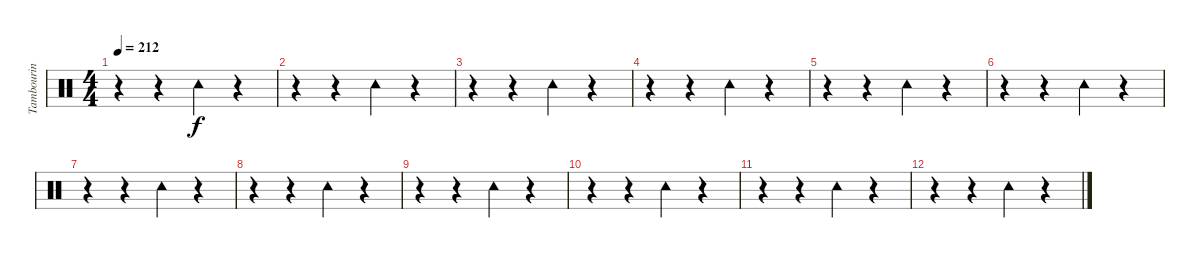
\track ("Tambourin" "Tambourin") {instrument percussion}
\staff {score}
\articulation defaults
\ts (4 4)
\tempo 212
\clef neutral
\ks c
r.4{dy f} r.4 "Tambourine (hit)".4 r.4 |
r.4 r.4 "Tambourine (hit)".4 r.4 |
r.4 r.4 "Tambourine (hit)".4 r.4 |
r.4 r.4 "Tambourine (hit)".4 r.4 |
r.4 r.4 "Tambourine (hit)".4 r.4 |
r.4 r.4 "Tambourine (hit)".4 r.4 |
r.4 r.4 "Tambourine (hit)".4 r.4 |
r.4 r.4 "Tambourine (hit)".4 r.4 |
r.4 r.4 "Tambourine (hit)".4 r.4 |
r.4 r.4 "Tambourine (hit)".4 r.4 |
r.4 r.4 "Tambourine (hit)".4 r.4 |
r.4 r.4 "Tambourine (hit)".4 r.4
